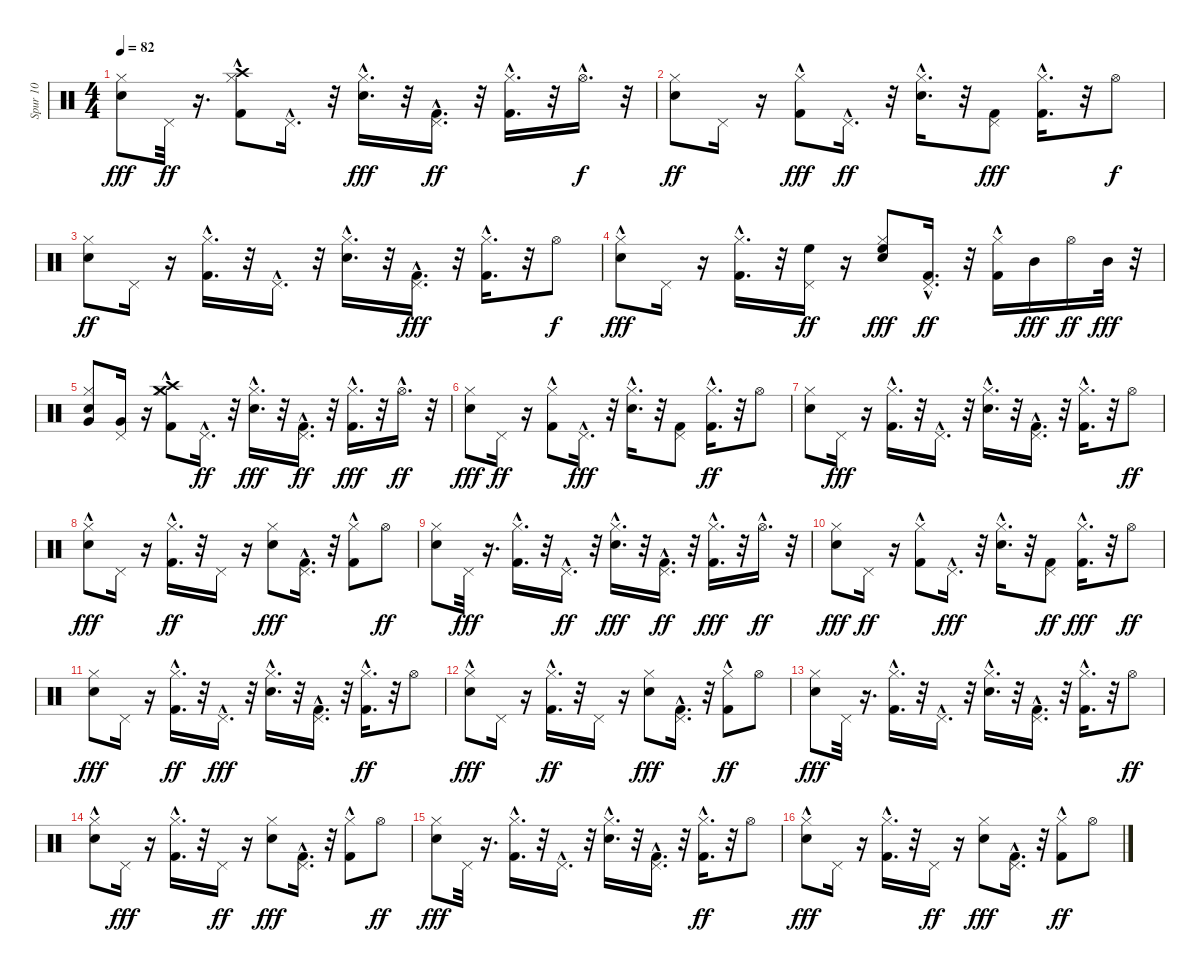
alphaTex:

\track ("Spur 10" "Spur 10") {instrument percussion}
\staff {score}
\articulation defaults
\ts (4 4)
\tempo 82
\clef neutral
\ks c
("Electric Snare (hit)" "Hi-Hat (closed)").8{dy fff} "Pedal Hi-Hat (hit)".32{dy ff} r.16{d} ("Kick (hit) 2"{hac} "Crash high (hit)" "Hi-Hat (closed)"{hac}).8 "Pedal Hi-Hat (hit)"{hac}.16{d} r.32 ("Hi-Hat (closed)"{hac} "Electric Snare (hit)").16{d dy fff} r.32 ("Kick (hit) 2" "Pedal Hi-Hat (hit)"{hac}).16{d dy ff} r.32 ("Kick (hit) 2"{hac} "Hi-Hat (closed)"{hac}).16{d} r.32 "Hi-Hat (open)"{hac}.16{d dy f} r.32 |
("Electric Snare (hit)" "Hi-Hat (closed)").8{dy ff} "Pedal Hi-Hat (hit)".16 r.16 ("Kick (hit) 2"{hac} "Hi-Hat (closed)").8{dy fff} "Pedal Hi-Hat (hit)"{hac}.16{d dy ff} r.32 ("Electric Snare (hit)" "Hi-Hat (closed)"{hac}).16{d} r.32 ("Kick (hit) 2" "Pedal Hi-Hat (hit)").8{dy fff} ("Kick (hit) 2"{hac} "Hi-Hat (closed)"{hac}).16{d} r.32 "Hi-Hat (open)".8{dy f} |
("Electric Snare (hit)" "Hi-Hat (closed)").8{dy ff} "Pedal Hi-Hat (hit)".16 r.16 ("Kick (hit) 2"{hac} "Hi-Hat (closed)"{hac}).16{d} r.32 "Pedal Hi-Hat (hit)"{hac}.16{d} r.32 ("Electric Snare (hit)" "Hi-Hat (closed)"{hac}).16{d} r.32 ("Kick (hit) 2" "Pedal Hi-Hat (hit)"{hac}).16{d dy fff} r.32 ("Hi-Hat (closed)"{hac} "Kick (hit) 2"{hac}).16{d} r.32 "Hi-Hat (open)".8{dy f} |
("Electric Snare (hit)"{hac} "Hi-Hat (closed)").8{dy fff} "Pedal Hi-Hat (hit)".16 r.16 ("Hi-Hat (closed)"{hac} "Kick (hit) 2"{hac}).16{d} r.32 ("High Floor Tom (hit)" "Pedal Hi-Hat (hit)").16{dy ff} r.16 ("Hi-Hat (closed)" "Electric Snare (hit)" "High Floor Tom (hit)").8{dy fff} ("Kick (hit) 2" "Pedal Hi-Hat (hit)"{hac}).16{d dy ff} r.32 ("Kick (hit) 2"{hac} "Hi-Hat (closed)").16 "Mid Tom (hit)".16{dy fff} "Hi-Hat (open)".16{dy ff} "Mid Tom (hit)".32{dy fff} r.32 |
("Very Low Tom (hit)" "Electric Snare (hit)" "Hi-Hat (closed)").8 ("Pedal Hi-Hat (hit)" "Very Low Tom (hit)").16 r.16 ("Crash high (hit)" "Crash medium (hit)" "Kick (hit) 2"{hac} "Hi-Hat (closed)"{hac}).8 "Pedal Hi-Hat (hit)"{hac}.16{d dy ff} r.32 ("Electric Snare (hit)" "Hi-Hat (closed)"{hac}).16{d dy fff} r.32 ("Kick (hit) 2" "Pedal Hi-Hat (hit)"{hac}).16{d dy ff} r.32 ("Hi-Hat (closed)"{hac} "Kick (hit) 2"{hac}).16{d dy fff} r.32 "Hi-Hat (open)"{hac}.16{d dy ff} r.32 |
("Hi-Hat (closed)" "Electric Snare (hit)").8{dy fff} "Pedal Hi-Hat (hit)".16{dy ff} r.16 ("Kick (hit) 2"{hac} "Hi-Hat (closed)").8 "Pedal Hi-Hat (hit)"{hac}.16{d dy fff} r.32 ("Electric Snare (hit)" "Hi-Hat (closed)"{hac}).16{d} r.32 ("Pedal Hi-Hat (hit)" "Kick (hit) 2").8 ("Kick (hit) 2"{hac} "Hi-Hat (closed)"{hac}).16{d dy ff} r.32 "Hi-Hat (open)".8 |
("Electric Snare (hit)" "Hi-Hat (closed)").8 "Pedal Hi-Hat (hit)".16{dy fff} r.16 ("Hi-Hat (closed)"{hac} "Kick (hit) 2"{hac}).16{d} r.32 "Pedal Hi-Hat (hit)"{hac}.16{d} r.32 ("Electric Snare (hit)" "Hi-Hat (closed)"{hac}).16{d} r.32 ("Pedal Hi-Hat (hit)"{hac} "Kick (hit) 2").16{d} r.32 ("Hi-Hat (closed)"{hac} "Kick (hit) 2"{hac}).16{d} r.32 "Hi-Hat (open)".8{dy ff} |
("Hi-Hat (closed)" "Electric Snare (hit)"{hac}).8{dy fff} "Pedal Hi-Hat (hit)".16 r.16 ("Kick (hit) 2"{hac} "Hi-Hat (closed)"{hac}).16{d dy ff} r.32 "Pedal Hi-Hat (hit)".16 r.16 ("Electric Snare (hit)" "Hi-Hat (closed)").8{dy fff} ("Kick (hit) 2" "Pedal Hi-Hat (hit)"{hac}).16{d} r.32 ("Hi-Hat (closed)" "Kick (hit) 2"{hac}).8 "Hi-Hat (open)".8{dy ff} |
("Electric Snare (hit)" "Hi-Hat (closed)").8 "Pedal Hi-Hat (hit)".32{dy fff} r.16{d} ("Hi-Hat (closed)"{hac} "Kick (hit) 2"{hac}).16{d} r.32 "Pedal Hi-Hat (hit)"{hac}.16{d dy ff} r.32 ("Hi-Hat (closed)"{hac} "Electric Snare (hit)").16{d dy fff} r.32 ("Kick (hit) 2" "Pedal Hi-Hat (hit)"{hac}).16{d dy ff} r.32 ("Hi-Hat (closed)"{hac} "Kick (hit) 2"{hac}).16{d dy fff} r.32 "Hi-Hat (open)"{hac}.16{d dy ff} r.32 |
("Hi-Hat (closed)" "Electric Snare (hit)").8{dy fff} "Pedal Hi-Hat (hit)".16{dy ff} r.16 ("Kick (hit) 2"{hac} "Hi-Hat (closed)").8 "Pedal Hi-Hat (hit)"{hac}.16{d dy fff} r.32 ("Electric Snare (hit)" "Hi-Hat (closed)"{hac}).16{d} r.32 ("Kick (hit) 2" "Pedal Hi-Hat (hit)").8{dy ff} ("Hi-Hat (closed)"{hac} "Kick (hit) 2"{hac}).16{d dy fff} r.32 "Hi-Hat (open)".8{dy ff} |
("Hi-Hat (closed)" "Electric Snare (hit)").8{dy fff} "Pedal Hi-Hat (hit)".16 r.16 ("Kick (hit) 2"{hac} "Hi-Hat (closed)"{hac}).16{d dy ff} r.32 "Pedal Hi-Hat (hit)"{hac}.16{d dy fff} r.32 ("Electric Snare (hit)" "Hi-Hat (closed)"{hac}).16{d} r.32 ("Kick (hit) 2" "Pedal Hi-Hat (hit)"{hac}).16{d} r.32 ("Kick (hit) 2"{hac} "Hi-Hat (closed)"{hac}).16{d dy ff} r.32 "Hi-Hat (open)".8 |
("Hi-Hat (closed)" "Electric Snare (hit)"{hac}).8{dy fff} "Pedal Hi-Hat (hit)".16 r.16 ("Kick (hit) 2"{hac} "Hi-Hat (closed)"{hac}).16{d dy ff} r.32 "Pedal Hi-Hat (hit)".16 r.16 ("Electric Snare (hit)" "Hi-Hat (closed)").8{dy fff} ("Kick (hit) 2" "Pedal Hi-Hat (hit)"{hac}).16{d} r.32 ("Kick (hit) 2"{hac} "Hi-Hat (closed)").8{dy ff} "Hi-Hat (open)".8 |
("Hi-Hat (closed)" "Electric Snare (hit)").8{dy fff} "Pedal Hi-Hat (hit)".32 r.16{d} ("Hi-Hat (closed)"{hac} "Kick (hit) 2"{hac}).16{d} r.32 "Pedal Hi-Hat (hit)"{hac}.16{d} r.32 ("Hi-Hat (closed)"{hac} "Electric Snare (hit)").16{d} r.32 ("Kick (hit) 2" "Pedal Hi-Hat (hit)"{hac}).16{d} r.32 ("Hi-Hat (closed)"{hac} "Kick (hit) 2"{hac}).16{d} r.32 "Hi-Hat (open)".8{dy ff} |
("Electric Snare (hit)"{hac} "Hi-Hat (closed)").8 "Pedal Hi-Hat (hit)".16{dy fff} r.16 ("Hi-Hat (closed)"{hac} "Kick (hit) 2"{hac}).16{d} r.32 "Pedal Hi-Hat (hit)".16{dy ff} r.16 ("Hi-Hat (closed)" "Electric Snare (hit)").8{dy fff} ("Kick (hit) 2" "Pedal Hi-Hat (hit)"{hac}).16{d} r.32 ("Hi-Hat (closed)" "Kick (hit) 2"{hac}).8 "Hi-Hat (open)".8{dy ff} |
("Hi-Hat (closed)" "Electric Snare (hit)").8{dy fff} "Pedal Hi-Hat (hit)".32 r.16{d} ("Hi-Hat (closed)"{hac} "Kick (hit) 2"{hac}).16{d} r.32 "Pedal Hi-Hat (hit)"{hac}.16{d} r.32 ("Hi-Hat (closed)"{hac} "Electric Snare (hit)").16{d} r.32 ("Kick (hit) 2" "Pedal Hi-Hat (hit)"{hac}).16{d} r.32 ("Kick (hit) 2"{hac} "Hi-Hat (closed)"{hac}).16{d dy ff} r.32 "Hi-Hat (open)".8 |
("Hi-Hat (closed)" "Electric Snare (hit)"{hac}).8{dy fff} "Pedal Hi-Hat (hit)".16 r.16 ("Hi-Hat (closed)"{hac} "Kick (hit) 2"{hac}).16{d} r.32 "Pedal Hi-Hat (hit)".16{dy ff} r.16 ("Electric Snare (hit)" "Hi-Hat (closed)").8{dy fff} ("Kick (hit) 2" "Pedal Hi-Hat (hit)"{hac}).16{d} r.32 ("Kick (hit) 2"{hac} "Hi-Hat (closed)").8{dy ff} "Hi-Hat (open)".8
